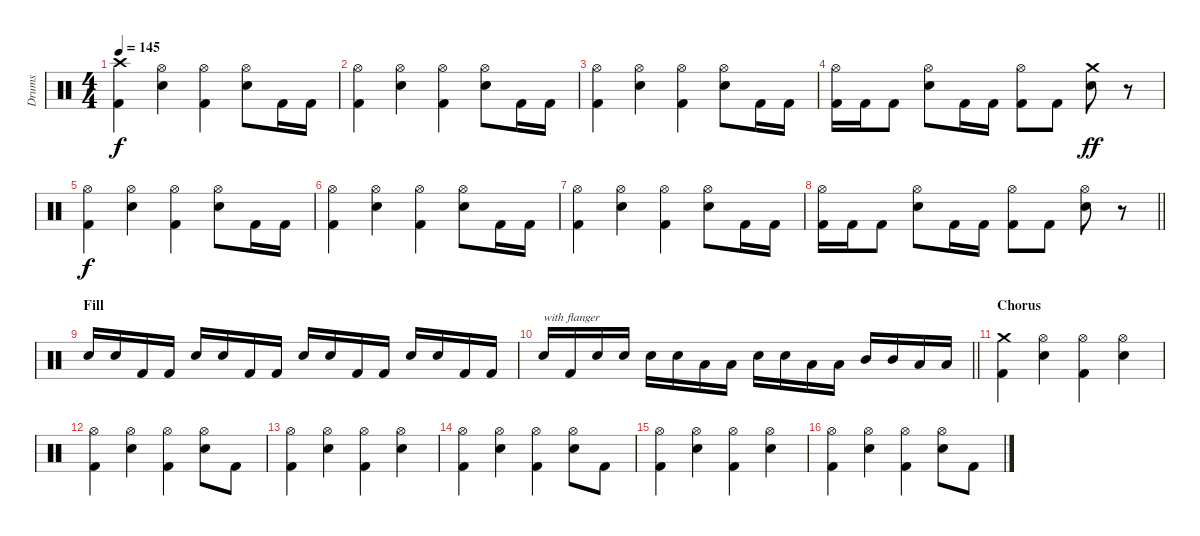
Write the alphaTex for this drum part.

\track ("Drums" "Drums") {instrument percussion}
\staff {score}
\articulation defaults
\ts (4 4)
\tempo 145
\clef neutral
\ks c
("Crash high (hit)" "Kick (hit) 2").4{dy f} ("Hi-Hat (open)" "Electric Snare (hit)").4 ("Hi-Hat (open)" "Kick (hit) 2").4 ("Hi-Hat (open)" "Electric Snare (hit)").8 "Kick (hit) 2".16 "Kick (hit) 2".16 |
("Hi-Hat (open)" "Kick (hit) 2").4 ("Hi-Hat (open)" "Electric Snare (hit)").4 ("Hi-Hat (open)" "Kick (hit) 2").4 ("Hi-Hat (open)" "Electric Snare (hit)").8 "Kick (hit) 2".16 "Kick (hit) 2".16 |
("Hi-Hat (open)" "Kick (hit) 2").4 ("Hi-Hat (open)" "Electric Snare (hit)").4 ("Hi-Hat (open)" "Kick (hit) 2").4 ("Hi-Hat (open)" "Electric Snare (hit)").8 "Kick (hit) 2".16 "Kick (hit) 2".16 |
("Hi-Hat (open)" "Kick (hit) 2").16 "Kick (hit) 2".16 "Kick (hit) 2".8 ("Hi-Hat (open)" "Electric Snare (hit)").8 "Kick (hit) 2".16 "Kick (hit) 2".16 ("Hi-Hat (open)" "Kick (hit) 2").8 "Kick (hit) 2".8 ("Crash medium (hit)" "Electric Snare (hit)").8{dy ff} r.8 |
("Hi-Hat (open)" "Kick (hit) 2").4{dy f} ("Hi-Hat (open)" "Electric Snare (hit)").4 ("Hi-Hat (open)" "Kick (hit) 2").4 ("Hi-Hat (open)" "Electric Snare (hit)").8 "Kick (hit) 2".16 "Kick (hit) 2".16 |
("Hi-Hat (open)" "Kick (hit) 2").4 ("Hi-Hat (open)" "Electric Snare (hit)").4 ("Hi-Hat (open)" "Kick (hit) 2").4 ("Hi-Hat (open)" "Electric Snare (hit)").8 "Kick (hit) 2".16 "Kick (hit) 2".16 |
("Hi-Hat (open)" "Kick (hit) 2").4 ("Hi-Hat (open)" "Electric Snare (hit)").4 ("Hi-Hat (open)" "Kick (hit) 2").4 ("Hi-Hat (open)" "Electric Snare (hit)").8 "Kick (hit) 2".16 "Kick (hit) 2".16 |
\barLineRight lightlight
("Hi-Hat (open)" "Kick (hit) 2").16 "Kick (hit) 2".16 "Kick (hit) 2".8 ("Hi-Hat (open)" "Electric Snare (hit)").8 "Kick (hit) 2".16 "Kick (hit) 2".16 ("Hi-Hat (open)" "Kick (hit) 2").8 "Kick (hit) 2".8 ("Hi-Hat (open)" "Electric Snare (hit)").8 r.8 |
\section ("" "Fill")
"Electric Snare (hit)".16 "Electric Snare (hit)".16 "Kick (hit) 2".16 "Kick (hit) 2".16 "Electric Snare (hit)".16 "Electric Snare (hit)".16 "Kick (hit) 2".16 "Kick (hit) 2".16 "Electric Snare (hit)".16 "Electric Snare (hit)".16 "Kick (hit) 2".16 "Kick (hit) 2".16 "Electric Snare (hit)".16 "Electric Snare (hit)".16 "Kick (hit) 2".16 "Kick (hit) 2".16 |
\barLineRight lightlight "Electric Snare (hit)".16{txt "with flanger"} "Kick (hit) 2".16 "Electric Snare (hit)".16 "Electric Snare (hit)".16 "Electric Snare (hit)".16 "Electric Snare (hit)".16 "Low Tom (hit)".16 "Low Tom (hit)".16 "Electric Snare (hit)".16 "Electric Snare (hit)".16 "Low Tom (hit)".16 "Low Tom (hit)".16 "Mid Tom (hit)".16 "Mid Tom (hit)".16 "Low Tom (hit)".16 "Low Tom (hit)".16
|
\section ("" "Chorus")
("Crash medium (hit)" "Kick (hit) 2").4 ("Hi-Hat (open)" "Electric Snare (hit)").4 ("Hi-Hat (open)" "Kick (hit) 2").4 ("Hi-Hat (open)" "Electric Snare (hit)").4 |
("Hi-Hat (open)" "Kick (hit) 2").4 ("Hi-Hat (open)" "Electric Snare (hit)").4 ("Hi-Hat (open)" "Kick (hit) 2").4 ("Hi-Hat (open)" "Electric Snare (hit)").8 "Kick (hit) 2".8 |
("Hi-Hat (open)" "Kick (hit) 2").4 ("Hi-Hat (open)" "Electric Snare (hit)").4 ("Hi-Hat (open)" "Kick (hit) 2").4 ("Hi-Hat (open)" "Electric Snare (hit)").4 |
("Hi-Hat (open)" "Kick (hit) 2").4 ("Hi-Hat (open)" "Electric Snare (hit)").4 ("Hi-Hat (open)" "Kick (hit) 2").4 ("Hi-Hat (open)" "Electric Snare (hit)").8 "Kick (hit) 2".8 |
("Hi-Hat (open)" "Kick (hit) 2").4 ("Hi-Hat (open)" "Electric Snare (hit)").4 ("Hi-Hat (open)" "Kick (hit) 2").4 ("Hi-Hat (open)" "Electric Snare (hit)").4 |
("Hi-Hat (open)" "Kick (hit) 2").4 ("Hi-Hat (open)" "Electric Snare (hit)").4 ("Hi-Hat (open)" "Kick (hit) 2").4 ("Hi-Hat (open)" "Electric Snare (hit)").8 "Kick (hit) 2".8
